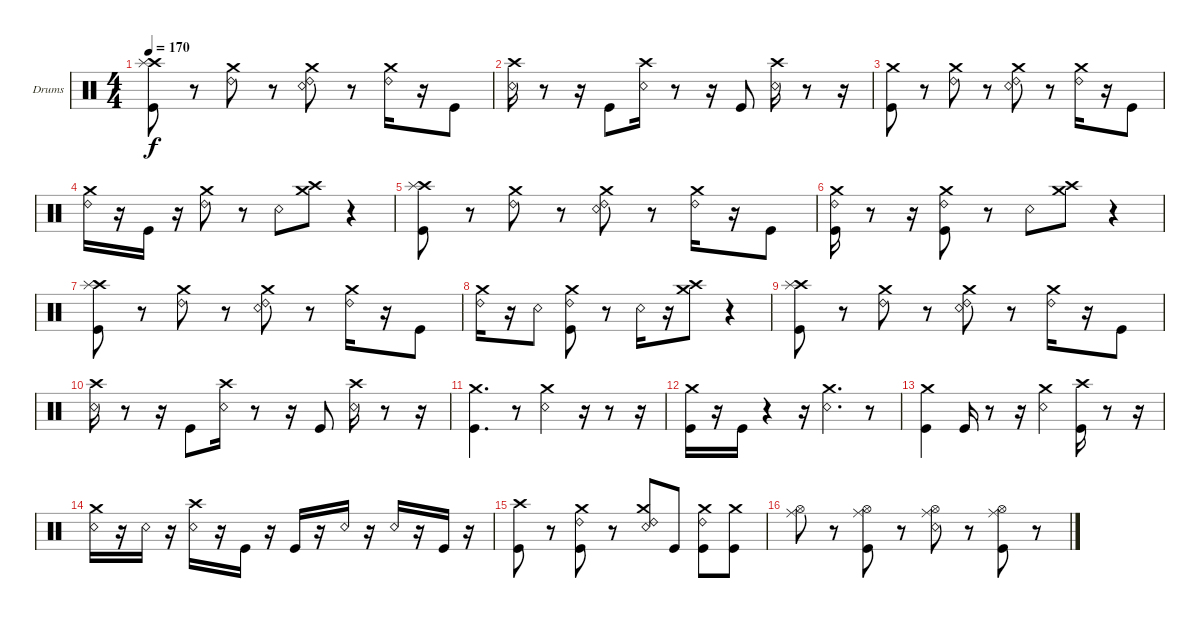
\bracketExtendMode groupsimilarinstruments
\firstSystemTrackNameOrientation horizontal
\otherSystemsTrackNameOrientation horizontal
\track ("Drumkit" "Drums") {instrument percussion}
\staff {score}
\articulation defaults
\ts (4 4)
\tempo 170
\clef neutral
\ks c
("Kick (hit)" "Crash high (hit)" "Splash (hit)").8{dy f} r.8 ("Ride (bell) 2" "Crash medium (hit)").8 r.8 ("Snare (rim shot)" "Ride (bell) 2" "Crash medium (hit)").8 r.8 ("Ride (bell) 2" "Crash medium (hit)").16 r.16 "Kick (hit)".8 |
("Snare (rim shot)" "Crash high (hit)").16 r.8 r.16 "Kick (hit)".8 ("Snare (rim shot)" "Crash high (hit)").16 r.8 r.16 "Kick (hit)".8 ("Snare (rim shot)" "Crash high (hit)").16 r.8 r.16 |
("Kick (hit)" "Crash medium (hit)").8 r.8 ("Ride (bell) 2" "Crash medium (hit)").8 r.8 ("Snare (rim shot)" "Ride (bell) 2" "Crash medium (hit)").8 r.8 ("Ride (bell) 2" "Crash medium (hit)").16 r.16 "Kick (hit)".8 |
("Ride (bell) 2" "Crash medium (hit)").16 r.16 "Kick (hit)".16 r.16 ("Ride (bell) 2" "Crash medium (hit)").8 r.8 "Snare (rim shot)".8 ("Crash high (hit)" "Crash medium (hit)").8 r.4 |
("Kick (hit)" "Crash high (hit)" "Splash (hit)").8 r.8 ("Ride (bell) 2" "Crash medium (hit)").8 r.8 ("Snare (rim shot)" "Ride (bell) 2" "Crash medium (hit)").8 r.8 ("Ride (bell) 2" "Crash medium (hit)").16 r.16 "Kick (hit)".8 |
("Kick (hit)" "Ride (bell) 2" "Crash medium (hit)").16 r.8 r.16 ("Kick (hit)" "Ride (bell) 2" "Crash medium (hit)").8 r.8 "Snare (rim shot)".8 ("Crash high (hit)" "Crash medium (hit)").8 r.4 |
("Kick (hit)" "Crash high (hit)" "Splash (hit)").8 r.8 ("Ride (bell) 2" "Crash medium (hit)").8 r.8 ("Snare (rim shot)" "Ride (bell) 2" "Crash medium (hit)").8 r.8 ("Ride (bell) 2" "Crash medium (hit)").16 r.16 "Kick (hit)".8 |
("Ride (bell) 2" "Crash medium (hit)").16 r.16 "Snare (rim shot)".8 ("Kick (hit)" "Ride (bell) 2" "Crash medium (hit)").8 r.8 "Snare (rim shot)".16 r.16 ("Crash high (hit)" "Crash medium (hit)").8 r.4 |
("Kick (hit)" "Crash high (hit)" "Splash (hit)").8 r.8 ("Ride (bell) 2" "Crash medium (hit)").8 r.8 ("Snare (rim shot)" "Ride (bell) 2" "Crash medium (hit)").8 r.8 ("Ride (bell) 2" "Crash medium (hit)").16 r.16 "Kick (hit)".8 |
("Snare (rim shot)" "Crash high (hit)").16 r.8 r.16 "Kick (hit)".8 ("Snare (rim shot)" "Crash high (hit)").16 r.8 r.16 "Kick (hit)".8 ("Snare (rim shot)" "Crash high (hit)").16 r.8 r.16 |
("Kick (hit)" "Crash medium (hit)").4{d} r.8 ("Snare (rim shot)" "Crash medium (hit)").4 r.16 r.8 r.16 |
("Kick (hit)" "Crash medium (hit)").16 r.16 "Kick (hit)".16 r.4 r.16 ("Snare (rim shot)" "Crash medium (hit)").4{d} r.8 |
("Kick (hit)" "Crash medium (hit)").4 "Kick (hit)".16 r.8 r.16 ("Snare (rim shot)" "Crash medium (hit)").4 ("Kick (hit)" "Crash high (hit)").16 r.8 r.16 |
("Snare (rim shot)" "Crash medium (hit)").16 r.16 "Snare (rim shot)".16 r.16 ("Snare (rim shot)" "Crash high (hit)").16 r.16 "Kick (hit)".16 r.16 "Kick (hit)".16 r.16 "Snare (rim shot)".16 r.16 "Snare (rim shot)".16 r.16 "Kick (hit)".16 r.16 |
("Kick (hit)" "Crash high (hit)").8 r.8 ("Kick (hit)" "Ride (bell) 2" "Crash medium (hit)").8 r.8 ("Snare (rim shot)" "Ride (bell) 2" "Crash medium (hit)").8 "Kick (hit)".8 ("Kick (hit)" "Ride (bell) 2" "Crash medium (hit)").8 ("Kick (hit)" "Crash medium (hit)").8 |
("Ride (middle)" "Hi-Hat (open)").8 r.8 ("Kick (hit)" "Ride (middle)" "Hi-Hat (open)").8 r.8 ("Snare (rim shot)" "Ride (middle)" "Hi-Hat (open)").8 r.8 ("Kick (hit)" "Ride (middle)" "Hi-Hat (open)").8 r.8
